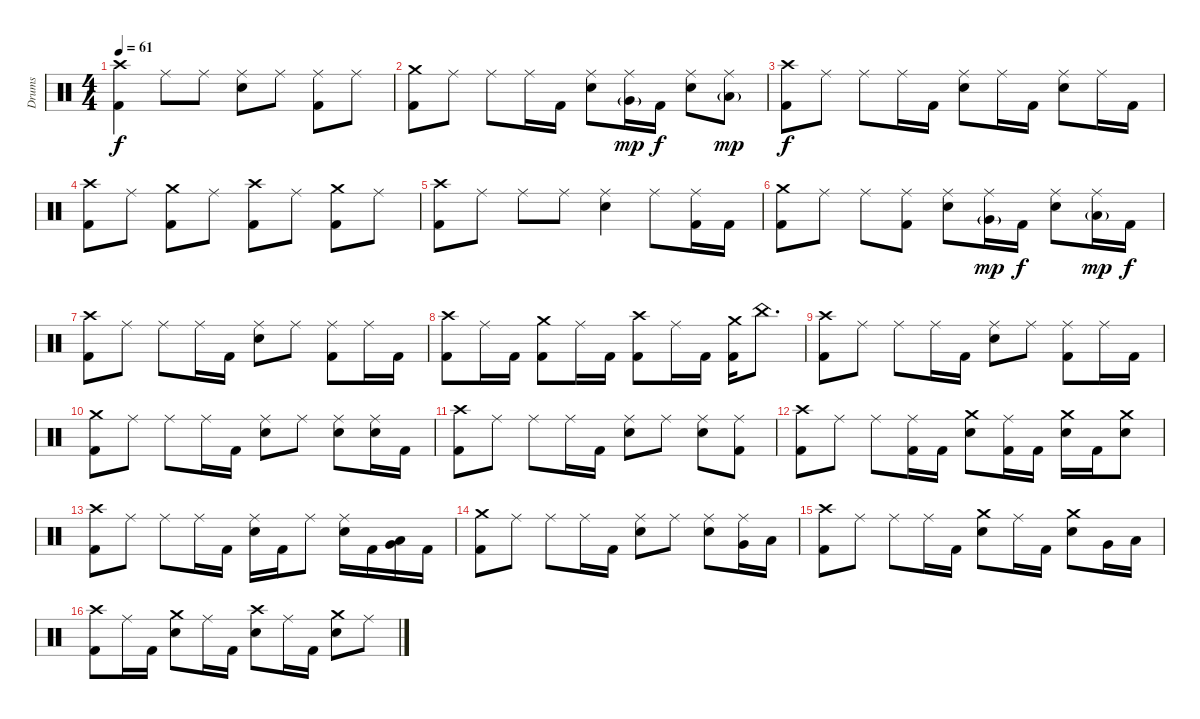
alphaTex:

\track ("Drums" "Drums") {instrument percussion}
\staff {score}
\articulation defaults
\ts (4 4)
\section ("" "")
\tempo 61
\clef neutral
\ks c
("Crash high (hit)" "Kick (hit) 2").4{dy f} "Ride (middle)".8 "Ride (middle)".8 ("Ride (middle)" "Electric Snare (hit)").8 "Ride (middle)".8 ("Ride (middle)" "Kick (hit) 2").8 "Ride (middle)".8 |
("Crash medium (hit)" "Kick (hit) 2").8 "Ride (middle)".8 "Ride (middle)".8 "Ride (middle)".16 "Kick (hit) 2".16 ("Ride (middle)" "Electric Snare (hit)").8 ("Ride (middle)" "Very Low Tom (hit)"{g}).16{dy mp} "Kick (hit) 2".16{dy f} ("Ride (middle)" "Electric Snare (hit)").8 ("Ride (middle)" "Low Floor Tom (hit)"{g}).8{dy mp} |
("Crash high (hit)" "Kick (hit) 2").8{dy f} "Ride (middle)".8 "Ride (middle)".8 "Ride (middle)".16 "Kick (hit) 2".16 ("Ride (middle)" "Electric Snare (hit)").8 "Ride (middle)".16 "Kick (hit) 2".16 ("Ride (middle)" "Electric Snare (hit)").8 "Ride (middle)".16 "Kick (hit) 2".16 |
("Crash high (hit)" "Kick (hit) 2").8 "Ride (middle)".8 ("Crash medium (hit)" "Kick (hit) 2").8 "Ride (middle)".8 ("Crash high (hit)" "Kick (hit) 2").8 "Ride (middle)".8 ("Crash medium (hit)" "Kick (hit) 2").8 "Ride (middle)".8 |
("Crash high (hit)" "Kick (hit) 2").8 "Ride (middle)".8 "Ride (middle)".8 "Ride (middle)".8 ("Ride (middle)" "Electric Snare (hit)").4 "Ride (middle)".8 ("Ride (middle)" "Kick (hit) 2").16 "Kick (hit) 2".16 |
("Crash medium (hit)" "Kick (hit) 2").8 "Ride (middle)".8 "Ride (middle)".8 ("Ride (middle)" "Kick (hit) 2").8 ("Ride (middle)" "Electric Snare (hit)").8 ("Ride (middle)" "Very Low Tom (hit)"{g}).16{dy mp} "Kick (hit) 2".16{dy f} ("Ride (middle)" "Electric Snare (hit)").8 ("Ride (middle)" "Low Floor Tom (hit)"{g}).16{dy mp} "Kick (hit) 2".16{dy f} |
("Crash high (hit)" "Kick (hit) 2").8 "Ride (middle)".8 "Ride (middle)".8 "Ride (middle)".16 "Kick (hit) 2".16 ("Ride (middle)" "Electric Snare (hit)").8 "Ride (middle)".8 ("Ride (middle)" "Kick (hit) 2").8 "Ride (middle)".16 "Kick (hit) 2".16 |
("Crash high (hit)" "Kick (hit) 2").8 "Ride (middle)".16 "Kick (hit) 2".16 ("Crash medium (hit)" "Kick (hit) 2").8 "Ride (middle)".16 "Kick (hit) 2".16 ("Crash high (hit)" "Kick (hit) 2").8 "Ride (middle)".16 "Kick (hit) 2".16 ("Crash medium (hit)" "Kick (hit) 2").16 "China (hit)".8{d} |
("Crash high (hit)" "Kick (hit) 2").8 "Ride (middle)".8 "Ride (middle)".8 "Ride (middle)".16 "Kick (hit) 2".16 ("Ride (middle)" "Electric Snare (hit)").8 "Ride (middle)".8 ("Ride (middle)" "Kick (hit) 2").8 "Ride (middle)".16 "Kick (hit) 2".16 |
("Crash medium (hit)" "Kick (hit) 2").8 "Ride (middle)".8 "Ride (middle)".8 "Ride (middle)".16 "Kick (hit) 2".16 ("Ride (middle)" "Electric Snare (hit)").8 "Ride (middle)".8 ("Ride (middle)" "Electric Snare (hit)").8 ("Ride (middle)" "Electric Snare (hit)").16 "Kick (hit) 2".16 |
("Crash high (hit)" "Kick (hit) 2").8 "Ride (middle)".8 "Ride (middle)".8 "Ride (middle)".16 "Kick (hit) 2".16 ("Ride (middle)" "Electric Snare (hit)").8 "Ride (middle)".8 ("Ride (middle)" "Electric Snare (hit)").8 ("Ride (middle)" "Kick (hit) 2").8 |
("Crash high (hit)" "Kick (hit) 2").8 "Ride (middle)".8 "Ride (middle)".8 ("Ride (middle)" "Kick (hit) 2").16 "Kick (hit) 2".16 ("Crash medium (hit)" "Electric Snare (hit)").8 ("Ride (middle)" "Kick (hit) 2").16 "Kick (hit) 2".16 ("Crash medium (hit)" "Electric Snare (hit)").16 "Kick (hit) 2".16 ("Crash medium (hit)" "Electric Snare (hit)").8 |
("Crash high (hit)" "Kick (hit) 2").8 "Ride (middle)".8 "Ride (middle)".8 "Ride (middle)".16 "Kick (hit) 2".16 ("Ride (middle)" "Electric Snare (hit)").16 "Kick (hit) 2".16 "Ride (middle)".8 ("Ride (middle)" "Electric Snare (hit)").16 "Kick (hit) 2".16 ("Low Tom (hit)" "Very Low Tom (hit)").16 "Kick (hit) 2".16 |
("Crash medium (hit)" "Kick (hit) 2").8 "Ride (middle)".8 "Ride (middle)".8 "Ride (middle)".16 "Kick (hit) 2".16 ("Ride (middle)" "Electric Snare (hit)").8 "Ride (middle)".8 ("Ride (middle)" "Electric Snare (hit)").8 ("Ride (middle)" "Very Low Tom (hit)").16 "Low Floor Tom (hit)".16 |
("Crash high (hit)" "Kick (hit) 2").8 "Ride (middle)".8 "Ride (middle)".8 "Ride (middle)".16 "Kick (hit) 2".16 ("Crash medium (hit)" "Electric Snare (hit)").8 "Ride (middle)".16 "Kick (hit) 2".16 ("Crash medium (hit)" "Electric Snare (hit)").8 "Very Low Tom (hit)".16 "Low Floor Tom (hit)".16 |
("Crash high (hit)" "Kick (hit) 2").8 "Ride (middle)".16 "Kick (hit) 2".16 ("Crash medium (hit)" "Electric Snare (hit)").8 "Ride (middle)".16 "Kick (hit) 2".16 ("Crash high (hit)" "Electric Snare (hit)").8 "Ride (middle)".16 "Kick (hit) 2".16 ("Crash medium (hit)" "Electric Snare (hit)").8 "Ride (middle)".8
